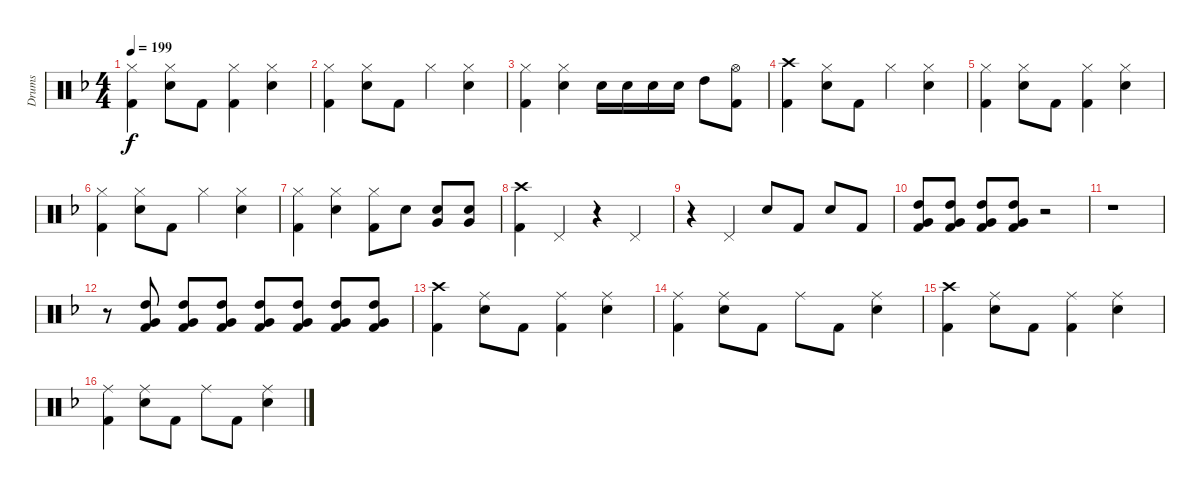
\track ("Drums" "Drums") {instrument percussion}
\staff {score}
\articulation defaults
\ts (4 4)
\tempo 199
\clef neutral
\ks f
("Hi-Hat (closed)" "Kick (hit) 2").4{dy f} ("Hi-Hat (closed)" "Snare (hit) 2").8 "Kick (hit) 2".8 ("Hi-Hat (closed)" "Kick (hit) 2").4 ("Hi-Hat (closed)" "Snare (hit) 2").4 |
("Hi-Hat (closed)" "Kick (hit) 2").4 ("Hi-Hat (closed)" "Snare (hit) 2").8 "Kick (hit) 2".8 "Hi-Hat (closed)".4 ("Hi-Hat (closed)" "Snare (hit) 2").4 |
("Hi-Hat (closed)" "Kick (hit) 2").4 ("Hi-Hat (closed)" "Snare (hit) 2").4 "Snare (hit) 2".16 "Snare (hit) 2".16 "Snare (hit) 2".16 "Snare (hit) 2".16 "High Tom (hit)".8 ("Hi-Hat (open)" "Kick (hit) 2").8 |
("Crash high (hit)" "Kick (hit) 2").4 ("Hi-Hat (closed)" "Snare (hit) 2").8 "Kick (hit) 2".8 "Hi-Hat (closed)".4 ("Hi-Hat (closed)" "Snare (hit) 2").4 |
("Hi-Hat (closed)" "Kick (hit) 2").4 ("Hi-Hat (closed)" "Snare (hit) 2").8 "Kick (hit) 2".8 ("Hi-Hat (closed)" "Kick (hit) 2").4 ("Hi-Hat (closed)" "Snare (hit) 2").4 |
("Hi-Hat (closed)" "Kick (hit) 2").4 ("Hi-Hat (closed)" "Snare (hit) 2").8 "Kick (hit) 2".8 "Hi-Hat (closed)".4 ("Hi-Hat (closed)" "Snare (hit) 2").4 |
("Hi-Hat (closed)" "Kick (hit) 2").4 ("Hi-Hat (closed)" "Snare (hit) 2").4 ("Hi-Hat (closed)" "Kick (hit) 2").8 "Snare (hit) 2".8 ("Snare (hit) 2" "Very Low Tom (hit)").8 ("Snare (hit) 2" "Very Low Tom (hit)").8 |
("Crash high (hit)" "Kick (hit) 2").4 "Pedal Hi-Hat (hit)".4 r.4 "Pedal Hi-Hat (hit)".4 |
r.4 "Pedal Hi-Hat (hit)".4 "Snare (hit) 2".8 "Kick (hit) 2".8 "Snare (hit) 2".8 "Kick (hit) 2".8 |
("High Tom (hit)" "Very Low Tom (hit)" "Kick (hit) 2").8{volume 8} ("High Tom (hit)" "Very Low Tom (hit)" "Kick (hit) 2").8 ("High Tom (hit)" "Very Low Tom (hit)" "Kick (hit) 2").8 ("High Tom (hit)" "Very Low Tom (hit)" "Kick (hit) 2").8 r.2 |
r.1 |
r.8{volume 0} ("High Tom (hit)" "Very Low Tom (hit)" "Kick (hit) 2").8{volume 10} ("High Tom (hit)" "Very Low Tom (hit)" "Kick (hit) 2").8 ("High Tom (hit)" "Very Low Tom (hit)" "Kick (hit) 2").8 ("High Tom (hit)" "Very Low Tom (hit)" "Kick (hit) 2").8 ("High Tom (hit)" "Very Low Tom (hit)" "Kick (hit) 2").8 ("High Tom (hit)" "Very Low Tom (hit)" "Kick (hit) 2").8 ("High Tom (hit)" "Very Low Tom (hit)" "Kick (hit) 2").8 |
("Crash high (hit)" "Kick (hit) 2").4{volume 12} ("Ride (middle)" "Snare (hit) 2").8 "Kick (hit) 2".8 ("Ride (middle)" "Kick (hit) 2").4 ("Ride (middle)" "Snare (hit) 2").4 |
("Ride (middle)" "Kick (hit) 2").4 ("Ride (middle)" "Snare (hit) 2").8 "Kick (hit) 2".8 "Ride (middle)".8 "Kick (hit) 2".8 ("Ride (middle)" "Snare (hit) 2").4 |
("Crash high (hit)" "Kick (hit) 2").4 ("Ride (middle)" "Snare (hit) 2").8 "Kick (hit) 2".8 ("Ride (middle)" "Kick (hit) 2").4 ("Ride (middle)" "Snare (hit) 2").4 |
("Ride (middle)" "Kick (hit) 2").4 ("Ride (middle)" "Snare (hit) 2").8 "Kick (hit) 2".8 "Ride (middle)".8 "Kick (hit) 2".8 ("Ride (middle)" "Snare (hit) 2").4
